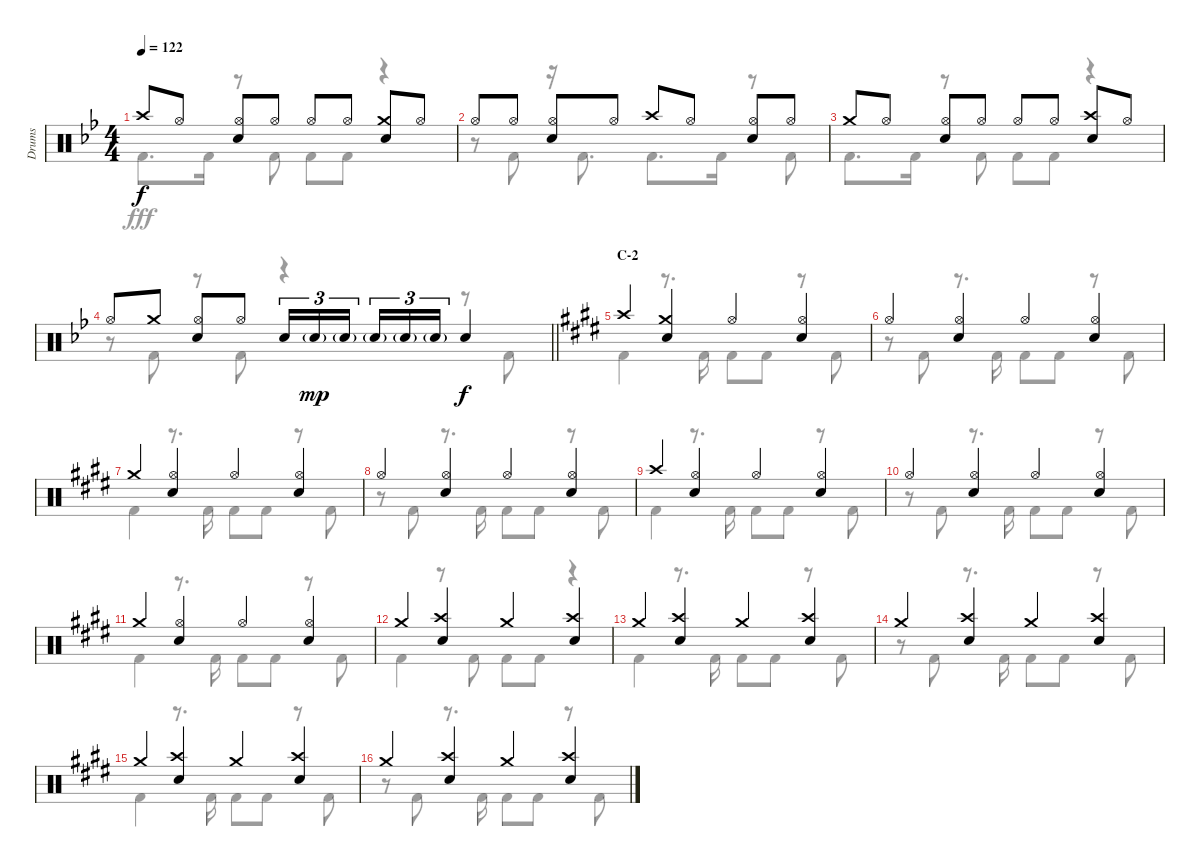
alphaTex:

\track ("Drums" "Drums") {instrument percussion}
\staff {score}
\articulation defaults
\voice
\ts (4 4)
\tempo 122
\clef neutral
\ks bb "Crash high (hit)".8{dy f} "Hi-Hat (open)".8
("Hi-Hat (open)" "Snare (hit) 2").8 "Hi-Hat (open)".8 "Hi-Hat (open)".8 "Hi-Hat (open)".8 ("Crash medium (hit)" "Snare (hit) 2").8 "Hi-Hat (open)".8 |
"Hi-Hat (open)".8 "Hi-Hat (open)".8 ("Hi-Hat (open)" "Snare (hit) 2").8 "Hi-Hat (open)".8 "Crash high (hit)".8 "Hi-Hat (open)".8 ("Hi-Hat (open)" "Snare (hit) 2").8 "Hi-Hat (open)".8 |
"Crash medium (hit)".8 "Hi-Hat (open)".8 ("Hi-Hat (open)" "Snare (hit) 2").8 "Hi-Hat (open)".8 "Hi-Hat (open)".8 "Hi-Hat (open)".8 ("Crash high (hit)" "Snare (hit) 2").8 "Hi-Hat (open)".8 |
\barLineRight lightlight "Hi-Hat (open)".8 "Crash medium (hit)".8
("Hi-Hat (open)" "Snare (hit) 2").8 "Hi-Hat (open)".8 "Snare (hit) 2".16{tu (3 2)} "Snare (hit) 2"{g}.16{tu (3 2) dy mp} "Snare (hit) 2"{g}.16{tu (3 2) beam splitsecondary} "Snare (hit) 2"{g}.16{tu (3 2)} "Snare (hit) 2"{g}.16{tu (3 2)} "Snare (hit) 2"{g}.16{tu (3 2)} "Snare (hit) 2".4{dy f} |
\section ("" "C-2")
\ks e "Crash high (hit)".4
("Crash medium (hit)" "Snare (hit) 2").4 "Hi-Hat (open)".4 ("Hi-Hat (open)" "Snare (hit) 2").4 |
"Hi-Hat (open)".4 ("Hi-Hat (open)" "Snare (hit) 2").4 "Hi-Hat (open)".4 ("Hi-Hat (open)" "Snare (hit) 2").4 |
"Crash medium (hit)".4 ("Hi-Hat (open)" "Snare (hit) 2").4 "Hi-Hat (open)".4 ("Hi-Hat (open)" "Snare (hit) 2").4 |
"Hi-Hat (open)".4 ("Hi-Hat (open)" "Snare (hit) 2").4 "Hi-Hat (open)".4 ("Hi-Hat (open)" "Snare (hit) 2").4 |
"Crash high (hit)".4 ("Hi-Hat (open)" "Snare (hit) 2").4 "Hi-Hat (open)".4 ("Hi-Hat (open)" "Snare (hit) 2").4 |
"Hi-Hat (open)".4 ("Hi-Hat (open)" "Snare (hit) 2").4 "Hi-Hat (open)".4 ("Hi-Hat (open)" "Snare (hit) 2").4 |
"Crash medium (hit)".4 ("Hi-Hat (open)" "Snare (hit) 2").4 "Hi-Hat (open)".4 ("Hi-Hat (open)" "Snare (hit) 2").4 |
"Crash medium (hit)".4 ("Crash high (hit)" "Snare (hit) 2").4 "Crash medium (hit)".4 ("Crash high (hit)" "Snare (hit) 2").4 |
"Crash medium (hit)".4 ("Crash high (hit)" "Snare (hit) 2").4 "Crash medium (hit)".4 ("Crash high (hit)" "Snare (hit) 2").4 |
"Crash medium (hit)".4 ("Crash high (hit)" "Snare (hit) 2").4 "Crash medium (hit)".4 ("Crash high (hit)" "Snare (hit) 2").4 |
"Crash medium (hit)".4 ("Crash high (hit)" "Snare (hit) 2").4 "Crash medium (hit)".4 ("Crash high (hit)" "Snare (hit) 2").4 |
"Crash medium (hit)".4 ("Crash high (hit)" "Snare (hit) 2").4 "Crash medium (hit)".4 ("Crash high (hit)" "Snare (hit) 2").4
\voice
\clef neutral
\ottava regular
\simile none
\ks bb "Kick (hit) 2".8{d dy fff} "Kick (hit) 2".16
r.8 "Kick (hit) 2".8 "Kick (hit) 2".8 "Kick (hit) 2".8 r.4 |
r.8 "Kick (hit) 2".8 r.16 "Kick (hit) 2".8{d} "Kick (hit) 2".8{d} "Kick (hit) 2".16 r.8 "Kick (hit) 2".8 |
"Kick (hit) 2".8{d} "Kick (hit) 2".16 r.8 "Kick (hit) 2".8 "Kick (hit) 2".8 "Kick (hit) 2".8 r.4 |
\barLineRight lightlight
r.8 "Kick (hit) 2".8 r.8 "Kick (hit) 2".8 r.4 r.8 "Kick (hit) 2".8 |
\ks e "Kick (hit) 2".4
r.8{d} "Kick (hit) 2".16 "Kick (hit) 2".8 "Kick (hit) 2".8 r.8 "Kick (hit) 2".8 |
r.8 "Kick (hit) 2".8 r.8{d} "Kick (hit) 2".16 "Kick (hit) 2".8 "Kick (hit) 2".8 r.8 "Kick (hit) 2".8 |
"Kick (hit) 2".4 r.8{d} "Kick (hit) 2".16 "Kick (hit) 2".8 "Kick (hit) 2".8 r.8 "Kick (hit) 2".8 |
r.8 "Kick (hit) 2".8 r.8{d} "Kick (hit) 2".16 "Kick (hit) 2".8 "Kick (hit) 2".8 r.8 "Kick (hit) 2".8 |
"Kick (hit) 2".4 r.8{d} "Kick (hit) 2".16 "Kick (hit) 2".8 "Kick (hit) 2".8 r.8 "Kick (hit) 2".8 |
r.8 "Kick (hit) 2".8 r.8{d} "Kick (hit) 2".16 "Kick (hit) 2".8 "Kick (hit) 2".8 r.8 "Kick (hit) 2".8 |
"Kick (hit) 2".4 r.8{d} "Kick (hit) 2".16 "Kick (hit) 2".8 "Kick (hit) 2".8 r.8 "Kick (hit) 2".8 |
"Kick (hit) 2".4 r.8 "Kick (hit) 2".8 "Kick (hit) 2".8 "Kick (hit) 2".8 r.4 |
"Kick (hit) 2".4 r.8{d} "Kick (hit) 2".16 "Kick (hit) 2".8 "Kick (hit) 2".8 r.8 "Kick (hit) 2".8 |
r.8 "Kick (hit) 2".8 r.8{d} "Kick (hit) 2".16 "Kick (hit) 2".8 "Kick (hit) 2".8 r.8 "Kick (hit) 2".8 |
"Kick (hit) 2".4 r.8{d} "Kick (hit) 2".16 "Kick (hit) 2".8 "Kick (hit) 2".8 r.8 "Kick (hit) 2".8 |
r.8 "Kick (hit) 2".8 r.8{d} "Kick (hit) 2".16 "Kick (hit) 2".8 "Kick (hit) 2".8 r.8 "Kick (hit) 2".8
